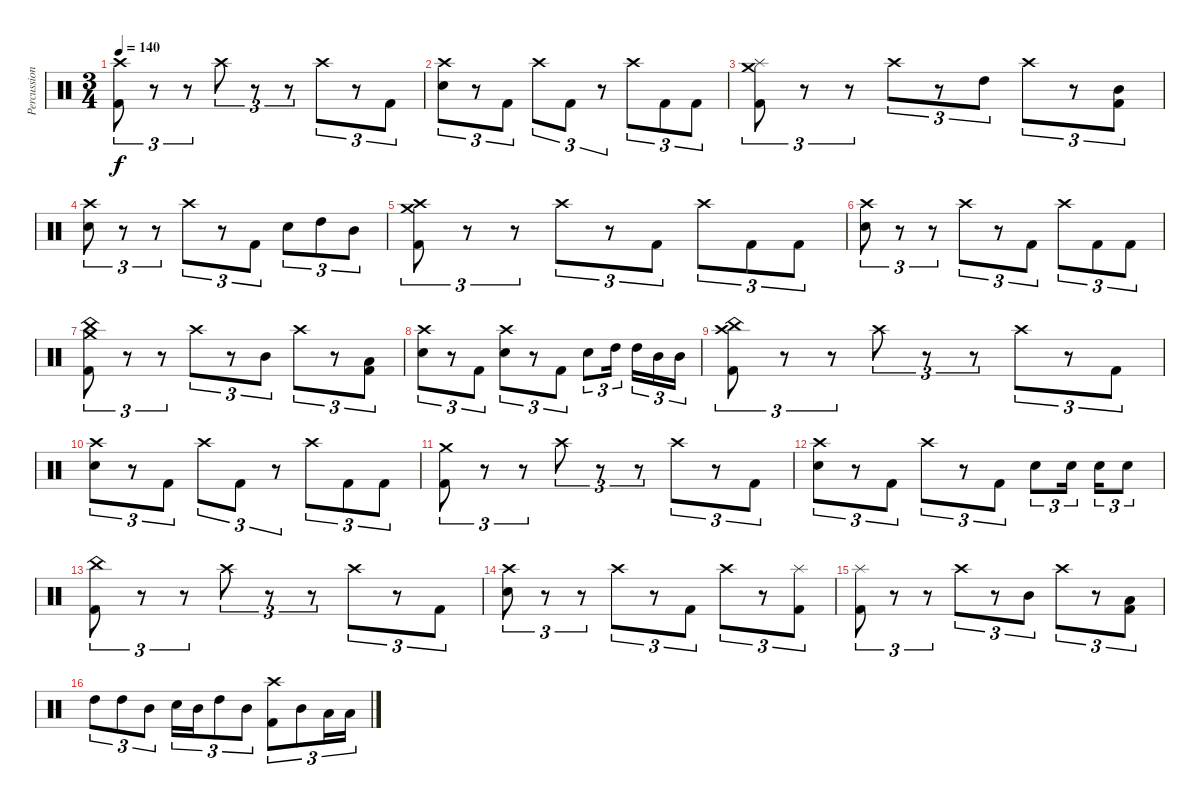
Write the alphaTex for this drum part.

\track ("Percussion" "Percussion") {instrument percussion}
\staff {score}
\articulation defaults
\ts (3 4)
\tempo 140
\clef neutral
\ks c
("Crash high (hit)" "Kick (hit) 2").8{tu (3 2) dy f} r.8{tu (3 2)} r.8{tu (3 2)} "Crash high (hit)".8{tu (3 2)} r.8{tu (3 2)} r.8{tu (3 2)} "Crash high (hit)".8{tu (3 2)} r.8{tu (3 2)} "Kick (hit) 2".8{tu (3 2)} |
("Crash high (hit)" "Electric Snare (hit)").8{tu (3 2)} r.8{tu (3 2)} "Kick (hit) 2".8{tu (3 2)} "Crash high (hit)".8{tu (3 2)} "Kick (hit) 2".8{tu (3 2)} r.8{tu (3 2)} "Crash high (hit)".8{tu (3 2)} "Kick (hit) 2".8{tu (3 2)} "Kick (hit) 2".8{tu (3 2)} |
("Splash (hit)" "Crash medium (hit)" "Kick (hit) 2").8{tu (3 2)} r.8{tu (3 2)} r.8{tu (3 2)} "Crash high (hit)".8{tu (3 2)} r.8{tu (3 2)} "High Tom (hit)".8{tu (3 2)} "Crash high (hit)".8{tu (3 2)} r.8{tu (3 2)} ("Mid Tom (hit)" "Kick (hit) 2").8{tu (3 2)} |
("Crash high (hit)" "Electric Snare (hit)").8{tu (3 2)} r.8{tu (3 2)} r.8{tu (3 2)} "Crash high (hit)".8{tu (3 2)} r.8{tu (3 2)} "Kick (hit) 2".8{tu (3 2)} "Electric Snare (hit)".8{tu (3 2)} "High Tom (hit)".8{tu (3 2)} "Mid Tom (hit)".8{tu (3 2)} |
("Crash high (hit)" "Crash medium (hit)" "Kick (hit) 2").8{tu (3 2)} r.8{tu (3 2)} r.8{tu (3 2)} "Crash high (hit)".8{tu (3 2)} r.8{tu (3 2)} "Kick (hit) 2".8{tu (3 2)} "Crash high (hit)".8{tu (3 2)} "Kick (hit) 2".8{tu (3 2)} "Kick (hit) 2".8{tu (3 2)} |
("Crash high (hit)" "Electric Snare (hit)").8{tu (3 2)} r.8{tu (3 2)} r.8{tu (3 2)} "Crash high (hit)".8{tu (3 2)} r.8{tu (3 2)} "Kick (hit) 2".8{tu (3 2)} "Crash high (hit)".8{tu (3 2)} "Kick (hit) 2".8{tu (3 2)} "Kick (hit) 2".8{tu (3 2)} |
("China (hit)" "Crash medium (hit)" "Kick (hit) 2").8{tu (3 2)} r.8{tu (3 2)} r.8{tu (3 2)} "Crash high (hit)".8{tu (3 2)} r.8{tu (3 2)} "Mid Tom (hit)".8{tu (3 2)} "Crash high (hit)".8{tu (3 2)} r.8{tu (3 2)} ("Low Tom (hit)" "Kick (hit) 2").8{tu (3 2)} |
("Crash high (hit)" "Electric Snare (hit)").8{tu (3 2)} r.8{tu (3 2)} "Kick (hit) 2".8{tu (3 2)} ("Crash high (hit)" "Electric Snare (hit)").8{tu (3 2)} r.8{tu (3 2)} "Kick (hit) 2".8{tu (3 2)} "Electric Snare (hit)".8{tu (3 2)} "High Tom (hit)".16{tu (3 2) beam splitsecondary} "High Tom (hit)".16{tu (3 2)} "Mid Tom (hit)".16{tu (3 2)} "Mid Tom (hit)".16{tu (3 2)} |
("Crash high (hit)" "China (hit)" "Kick (hit) 2").8{tu (3 2)} r.8{tu (3 2)} r.8{tu (3 2)} "Crash high (hit)".8{tu (3 2)} r.8{tu (3 2)} r.8{tu (3 2)} "Crash high (hit)".8{tu (3 2)} r.8{tu (3 2)} "Kick (hit) 2".8{tu (3 2)} |
("Crash high (hit)" "Electric Snare (hit)").8{tu (3 2)} r.8{tu (3 2)} "Kick (hit) 2".8{tu (3 2)} "Crash high (hit)".8{tu (3 2)} "Kick (hit) 2".8{tu (3 2)} r.8{tu (3 2)} "Crash high (hit)".8{tu (3 2)} "Kick (hit) 2".8{tu (3 2)} "Kick (hit) 2".8{tu (3 2)} |
("Crash medium (hit)" "Kick (hit) 2").8{tu (3 2)} r.8{tu (3 2)} r.8{tu (3 2)} "Crash high (hit)".8{tu (3 2)} r.8{tu (3 2)} r.8{tu (3 2)} "Crash high (hit)".8{tu (3 2)} r.8{tu (3 2)} "Kick (hit) 2".8{tu (3 2)} |
("Crash high (hit)" "Electric Snare (hit)").8{tu (3 2)} r.8{tu (3 2)} "Kick (hit) 2".8{tu (3 2)} "Crash high (hit)".8{tu (3 2)} r.8{tu (3 2)} "Kick (hit) 2".8{tu (3 2)} "Electric Snare (hit)".8{tu (3 2)} "Electric Snare (hit)".16{tu (3 2) beam splitsecondary} "Electric Snare (hit)".16{tu (3 2)} "Electric Snare (hit)".8{tu (3 2)} |
("China (hit)" "Kick (hit) 2").8{tu (3 2)} r.8{tu (3 2)} r.8{tu (3 2)} "Crash high (hit)".8{tu (3 2)} r.8{tu (3 2)} r.8{tu (3 2)} "Crash high (hit)".8{tu (3 2)} r.8{tu (3 2)} "Kick (hit) 2".8{tu (3 2)} |
("Crash high (hit)" "Electric Snare (hit)").8{tu (3 2)} r.8{tu (3 2)} r.8{tu (3 2)} "Crash high (hit)".8{tu (3 2)} r.8{tu (3 2)} "Kick (hit) 2".8{tu (3 2)} "Crash high (hit)".8{tu (3 2)} r.8{tu (3 2)} ("Splash (hit)" "Kick (hit) 2").8{tu (3 2)} |
("Splash (hit)" "Kick (hit) 2").8{tu (3 2)} r.8{tu (3 2)} r.8{tu (3 2)} "Crash high (hit)".8{tu (3 2)} r.8{tu (3 2)} "Mid Tom (hit)".8{tu (3 2)} "Crash high (hit)".8{tu (3 2)} r.8{tu (3 2)} ("Low Tom (hit)" "Kick (hit) 2").8{tu (3 2)} |
"High Tom (hit)".8{tu (3 2)} "High Tom (hit)".8{tu (3 2)} "Mid Tom (hit)".8{tu (3 2)} "Electric Snare (hit)".16{tu (3 2)} "Mid Tom (hit)".16{tu (3 2)} "High Tom (hit)".8{tu (3 2)} "Mid Tom (hit)".8{tu (3 2)} ("Crash high (hit)" "Kick (hit) 2").8{tu (3 2)} "Mid Tom (hit)".8{tu (3 2)} "Low Tom (hit)".16{tu (3 2)} "Low Tom (hit)".16{tu (3 2)}
